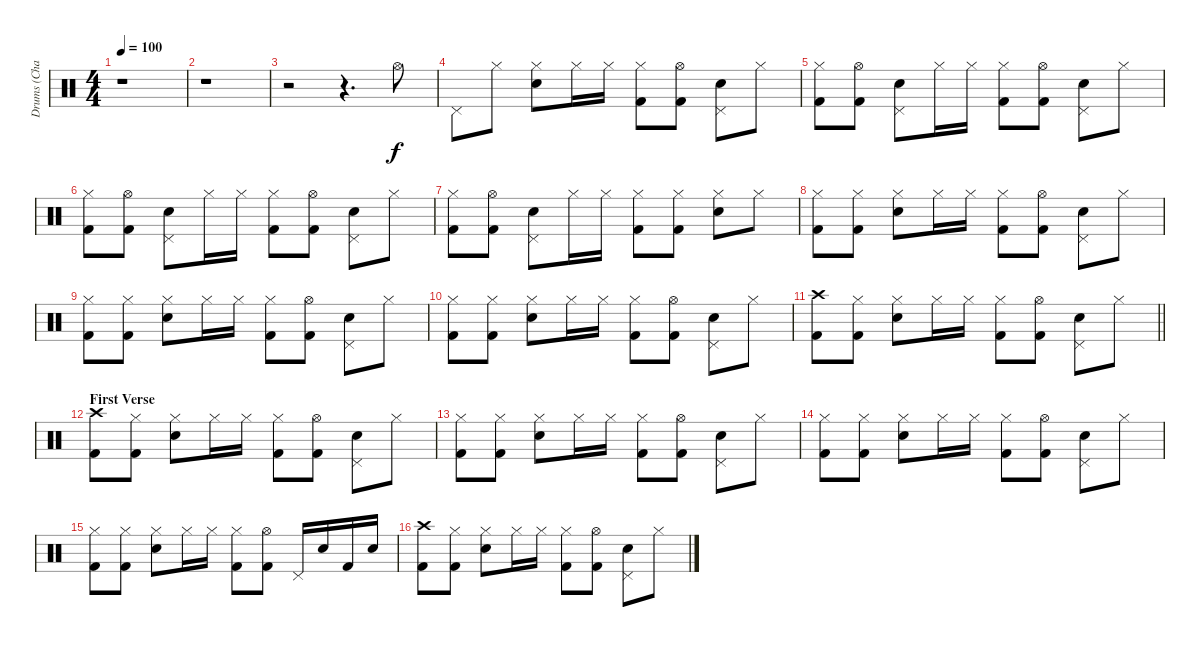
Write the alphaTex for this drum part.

\track ("Drums (Charlie)" "Drums (Cha") {instrument percussion}
\staff {score}
\articulation defaults
\ts (4 4)
\tempo 100
\clef neutral
\ks c
r.1{dy f} |
r.1 |
r.2 r.4{d} "Hi-Hat (open)".8 |
"Pedal Hi-Hat (hit)".8 "Hi-Hat (closed)".8 ("Hi-Hat (closed)" "Electric Snare (hit)").8 "Hi-Hat (closed)".16 "Hi-Hat (closed)".16 ("Hi-Hat (closed)" "Kick (hit) 2").8 ("Hi-Hat (open)" "Kick (hit) 2").8 ("Pedal Hi-Hat (hit)" "Electric Snare (hit)").8 "Hi-Hat (closed)".8 |
("Hi-Hat (closed)" "Kick (hit) 2").8 ("Hi-Hat (open)" "Kick (hit) 2").8 ("Pedal Hi-Hat (hit)" "Electric Snare (hit)").8 "Hi-Hat (closed)".16 "Hi-Hat (closed)".16 ("Hi-Hat (closed)" "Kick (hit) 2").8 ("Hi-Hat (open)" "Kick (hit) 2").8 ("Pedal Hi-Hat (hit)" "Electric Snare (hit)").8 "Hi-Hat (closed)".8 |
("Hi-Hat (closed)" "Kick (hit) 2").8 ("Hi-Hat (open)" "Kick (hit) 2").8 ("Pedal Hi-Hat (hit)" "Electric Snare (hit)").8 "Hi-Hat (closed)".16 "Hi-Hat (closed)".16 ("Hi-Hat (closed)" "Kick (hit) 2").8 ("Hi-Hat (open)" "Kick (hit) 2").8 ("Pedal Hi-Hat (hit)" "Electric Snare (hit)").8 "Hi-Hat (closed)".8 |
("Hi-Hat (closed)" "Kick (hit) 2").8 ("Hi-Hat (open)" "Kick (hit) 2").8 ("Pedal Hi-Hat (hit)" "Electric Snare (hit)").8 "Hi-Hat (closed)".16 "Hi-Hat (closed)".16 ("Hi-Hat (closed)" "Kick (hit) 2").8 ("Hi-Hat (closed)" "Kick (hit) 2").8 ("Hi-Hat (closed)" "Electric Snare (hit)").8 "Hi-Hat (closed)".8 |
("Hi-Hat (closed)" "Kick (hit) 2").8 ("Hi-Hat (closed)" "Kick (hit) 2").8 ("Hi-Hat (closed)" "Electric Snare (hit)").8 "Hi-Hat (closed)".16 "Hi-Hat (closed)".16 ("Hi-Hat (closed)" "Kick (hit) 2").8 ("Hi-Hat (open)" "Kick (hit) 2").8 ("Pedal Hi-Hat (hit)" "Electric Snare (hit)").8 "Hi-Hat (closed)".8 |
("Hi-Hat (closed)" "Kick (hit) 2").8 ("Hi-Hat (closed)" "Kick (hit) 2").8 ("Hi-Hat (closed)" "Electric Snare (hit)").8 "Hi-Hat (closed)".16 "Hi-Hat (closed)".16 ("Hi-Hat (closed)" "Kick (hit) 2").8 ("Hi-Hat (open)" "Kick (hit) 2").8 ("Pedal Hi-Hat (hit)" "Electric Snare (hit)").8 "Hi-Hat (closed)".8 |
("Hi-Hat (closed)" "Kick (hit) 2").8 ("Hi-Hat (closed)" "Kick (hit) 2").8 ("Hi-Hat (closed)" "Electric Snare (hit)").8 "Hi-Hat (closed)".16 "Hi-Hat (closed)".16 ("Hi-Hat (closed)" "Kick (hit) 2").8 ("Hi-Hat (open)" "Kick (hit) 2").8 ("Pedal Hi-Hat (hit)" "Electric Snare (hit)").8 "Hi-Hat (closed)".8 |
\barLineRight lightlight
("Crash high (hit)" "Kick (hit) 2").8 ("Hi-Hat (closed)" "Kick (hit) 2").8 ("Hi-Hat (closed)" "Electric Snare (hit)").8 "Hi-Hat (closed)".16 "Hi-Hat (closed)".16 ("Hi-Hat (closed)" "Kick (hit) 2").8 ("Hi-Hat (open)" "Kick (hit) 2").8 ("Pedal Hi-Hat (hit)" "Electric Snare (hit)").8 "Hi-Hat (closed)".8 |
\section ("" "First Verse")
("Crash high (hit)" "Kick (hit) 2").8 ("Hi-Hat (closed)" "Kick (hit) 2").8 ("Hi-Hat (closed)" "Electric Snare (hit)").8 "Hi-Hat (closed)".16 "Hi-Hat (closed)".16 ("Hi-Hat (closed)" "Kick (hit) 2").8 ("Hi-Hat (open)" "Kick (hit) 2").8 ("Pedal Hi-Hat (hit)" "Electric Snare (hit)").8 "Hi-Hat (closed)".8 |
("Hi-Hat (closed)" "Kick (hit) 2").8 ("Hi-Hat (closed)" "Kick (hit) 2").8 ("Hi-Hat (closed)" "Electric Snare (hit)").8 "Hi-Hat (closed)".16 "Hi-Hat (closed)".16 ("Hi-Hat (closed)" "Kick (hit) 2").8 ("Hi-Hat (open)" "Kick (hit) 2").8 ("Pedal Hi-Hat (hit)" "Electric Snare (hit)").8 "Hi-Hat (closed)".8 |
("Hi-Hat (closed)" "Kick (hit) 2").8 ("Hi-Hat (closed)" "Kick (hit) 2").8 ("Hi-Hat (closed)" "Electric Snare (hit)").8 "Hi-Hat (closed)".16 "Hi-Hat (closed)".16 ("Hi-Hat (closed)" "Kick (hit) 2").8 ("Hi-Hat (open)" "Kick (hit) 2").8 ("Pedal Hi-Hat (hit)" "Electric Snare (hit)").8 "Hi-Hat (closed)".8 |
("Hi-Hat (closed)" "Kick (hit) 2").8 ("Hi-Hat (closed)" "Kick (hit) 2").8 ("Hi-Hat (closed)" "Electric Snare (hit)").8 "Hi-Hat (closed)".16 "Hi-Hat (closed)".16 ("Hi-Hat (closed)" "Kick (hit) 2").8 ("Hi-Hat (open)" "Kick (hit) 2").8 "Pedal Hi-Hat (hit)".16 "Electric Snare (hit)".16 "Kick (hit) 2".16 "Electric Snare (hit)".16 |
("Crash high (hit)" "Kick (hit) 2").8 ("Hi-Hat (closed)" "Kick (hit) 2").8 ("Hi-Hat (closed)" "Electric Snare (hit)").8 "Hi-Hat (closed)".16 "Hi-Hat (closed)".16 ("Hi-Hat (closed)" "Kick (hit) 2").8 ("Hi-Hat (open)" "Kick (hit) 2").8 ("Pedal Hi-Hat (hit)" "Electric Snare (hit)").8 "Hi-Hat (closed)".8
